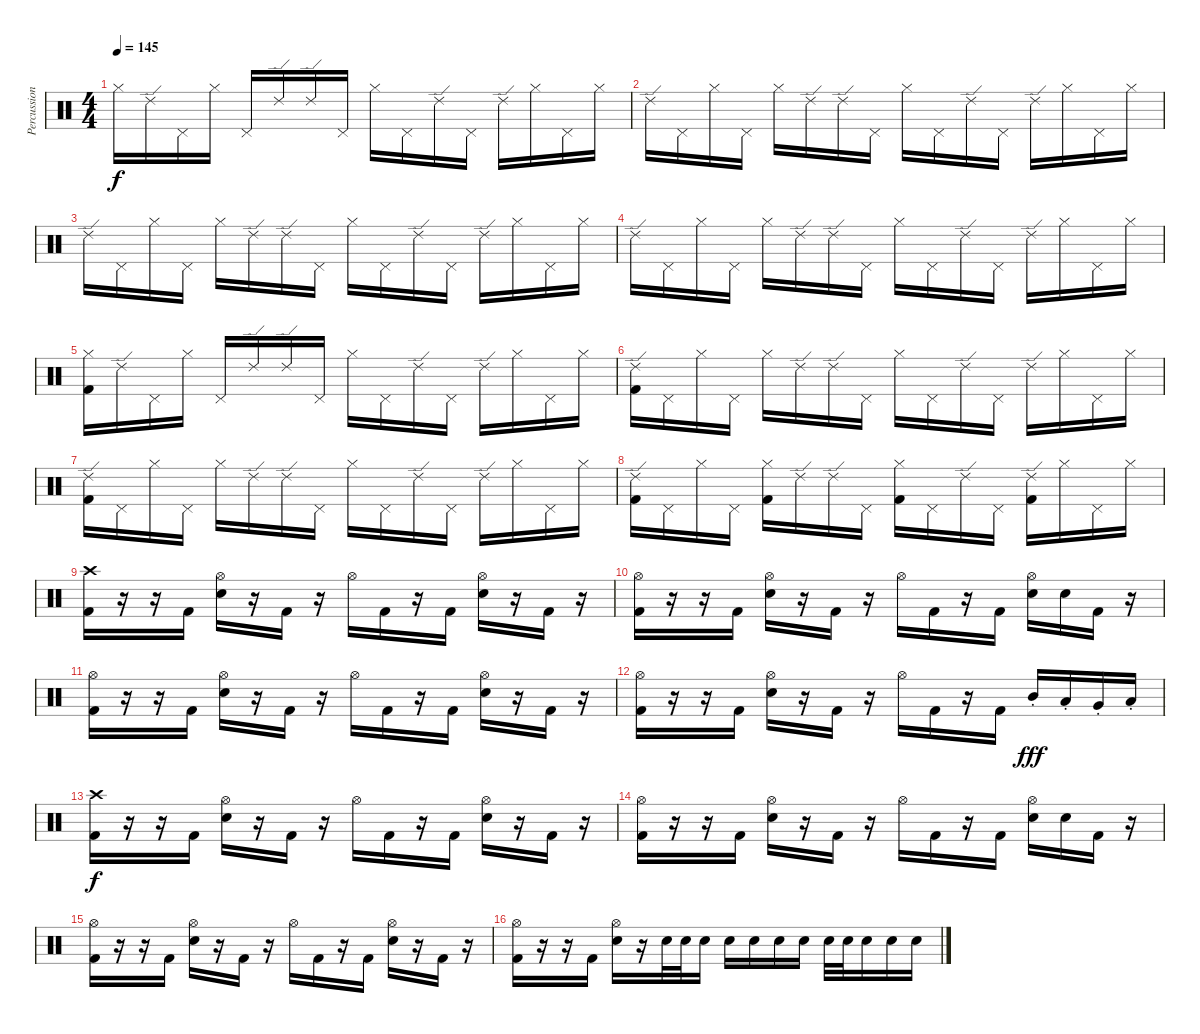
\track ("Percussion" "Percussion") {instrument percussion}
\staff {score}
\articulation defaults
\ts (4 4)
\tempo 145
\clef neutral
\ks c "Hi-Hat (closed)".16{dy f} "Ride (edge) 2".16 "Pedal Hi-Hat (hit)".16 "Hi-Hat (closed)".16 "Pedal Hi-Hat (hit)".16 "Ride (edge) 2".16 "Ride (edge) 2".16 "Pedal Hi-Hat (hit)".16 "Hi-Hat (closed)".16 "Pedal Hi-Hat (hit)".16 "Ride (edge) 2".16 "Pedal Hi-Hat (hit)".16 "Ride (edge) 2".16 "Hi-Hat (closed)".16 "Pedal Hi-Hat (hit)".16 "Hi-Hat (closed)".16
|
"Ride (edge) 2".16 "Pedal Hi-Hat (hit)".16 "Hi-Hat (closed)".16 "Pedal Hi-Hat (hit)".16 "Hi-Hat (closed)".16 "Ride (edge) 2".16 "Ride (edge) 2".16 "Pedal Hi-Hat (hit)".16 "Hi-Hat (closed)".16 "Pedal Hi-Hat (hit)".16 "Ride (edge) 2".16 "Pedal Hi-Hat (hit)".16 "Ride (edge) 2".16 "Hi-Hat (closed)".16 "Pedal Hi-Hat (hit)".16 "Hi-Hat (closed)".16 |
"Ride (edge) 2".16 "Pedal Hi-Hat (hit)".16 "Hi-Hat (closed)".16 "Pedal Hi-Hat (hit)".16 "Hi-Hat (closed)".16 "Ride (edge) 2".16 "Ride (edge) 2".16 "Pedal Hi-Hat (hit)".16 "Hi-Hat (closed)".16 "Pedal Hi-Hat (hit)".16 "Ride (edge) 2".16 "Pedal Hi-Hat (hit)".16 "Ride (edge) 2".16 "Hi-Hat (closed)".16 "Pedal Hi-Hat (hit)".16 "Hi-Hat (closed)".16 |
"Ride (edge) 2".16 "Pedal Hi-Hat (hit)".16 "Hi-Hat (closed)".16 "Pedal Hi-Hat (hit)".16 "Hi-Hat (closed)".16 "Ride (edge) 2".16 "Ride (edge) 2".16 "Pedal Hi-Hat (hit)".16 "Hi-Hat (closed)".16 "Pedal Hi-Hat (hit)".16 "Ride (edge) 2".16 "Pedal Hi-Hat (hit)".16 "Ride (edge) 2".16 "Hi-Hat (closed)".16 "Pedal Hi-Hat (hit)".16 "Hi-Hat (closed)".16 |
("Hi-Hat (closed)" "Kick (hit) 2").16 "Ride (edge) 2".16 "Pedal Hi-Hat (hit)".16 "Hi-Hat (closed)".16 "Pedal Hi-Hat (hit)".16 "Ride (edge) 2".16 "Ride (edge) 2".16 "Pedal Hi-Hat (hit)".16 "Hi-Hat (closed)".16 "Pedal Hi-Hat (hit)".16 "Ride (edge) 2".16 "Pedal Hi-Hat (hit)".16 "Ride (edge) 2".16 "Hi-Hat (closed)".16 "Pedal Hi-Hat (hit)".16 "Hi-Hat (closed)".16 |
("Ride (edge) 2" "Kick (hit) 2").16 "Pedal Hi-Hat (hit)".16 "Hi-Hat (closed)".16 "Pedal Hi-Hat (hit)".16 "Hi-Hat (closed)".16 "Ride (edge) 2".16 "Ride (edge) 2".16 "Pedal Hi-Hat (hit)".16 "Hi-Hat (closed)".16 "Pedal Hi-Hat (hit)".16 "Ride (edge) 2".16 "Pedal Hi-Hat (hit)".16 "Ride (edge) 2".16 "Hi-Hat (closed)".16 "Pedal Hi-Hat (hit)".16 "Hi-Hat (closed)".16 |
("Ride (edge) 2" "Kick (hit) 2").16 "Pedal Hi-Hat (hit)".16 "Hi-Hat (closed)".16 "Pedal Hi-Hat (hit)".16 "Hi-Hat (closed)".16 "Ride (edge) 2".16 "Ride (edge) 2".16 "Pedal Hi-Hat (hit)".16 "Hi-Hat (closed)".16 "Pedal Hi-Hat (hit)".16 "Ride (edge) 2".16 "Pedal Hi-Hat (hit)".16 "Ride (edge) 2".16 "Hi-Hat (closed)".16 "Pedal Hi-Hat (hit)".16 "Hi-Hat (closed)".16 |
("Ride (edge) 2" "Kick (hit) 2").16 "Pedal Hi-Hat (hit)".16 "Hi-Hat (closed)".16 "Pedal Hi-Hat (hit)".16 ("Hi-Hat (closed)" "Kick (hit) 2").16 "Ride (edge) 2".16 "Ride (edge) 2".16 "Pedal Hi-Hat (hit)".16 ("Hi-Hat (closed)" "Kick (hit) 2").16 "Pedal Hi-Hat (hit)".16 "Ride (edge) 2".16 "Pedal Hi-Hat (hit)".16 ("Ride (edge) 2" "Kick (hit) 2").16 "Hi-Hat (closed)".16 "Pedal Hi-Hat (hit)".16 "Hi-Hat (closed)".16 |
("Crash high (hit)" "Kick (hit) 2").16 r.16 r.16 "Kick (hit) 2".16 ("Hi-Hat (open)" "Snare (hit) 2").16 r.16 "Kick (hit) 2".16 r.16 "Hi-Hat (open)".16 "Kick (hit) 2".16 r.16 "Kick (hit) 2".16 ("Hi-Hat (open)" "Snare (hit) 2").16 r.16 "Kick (hit) 2".16 r.16 |
("Hi-Hat (open)" "Kick (hit) 2").16 r.16 r.16 "Kick (hit) 2".16 ("Hi-Hat (open)" "Snare (hit) 2").16 r.16 "Kick (hit) 2".16 r.16 "Hi-Hat (open)".16 "Kick (hit) 2".16 r.16 "Kick (hit) 2".16 ("Hi-Hat (open)" "Snare (hit) 2").16 "Snare (hit) 2".16 "Kick (hit) 2".16 r.16 |
("Hi-Hat (open)" "Kick (hit) 2").16 r.16 r.16 "Kick (hit) 2".16 ("Hi-Hat (open)" "Snare (hit) 2").16 r.16 "Kick (hit) 2".16 r.16 "Hi-Hat (open)".16 "Kick (hit) 2".16 r.16 "Kick (hit) 2".16 ("Hi-Hat (open)" "Snare (hit) 2").16 r.16 "Kick (hit) 2".16 r.16 |
("Hi-Hat (open)" "Kick (hit) 2").16 r.16 r.16 "Kick (hit) 2".16 ("Hi-Hat (open)" "Snare (hit) 2").16 r.16 "Kick (hit) 2".16 r.16 "Hi-Hat (open)".16 "Kick (hit) 2".16 r.16 "Kick (hit) 2".16 "Mid Tom (hit)"{st}.16{dy fff} "Low Tom (hit)"{st}.16 "Very Low Tom (hit)"{st}.16 "Low Floor Tom (hit)"{st}.16 |
("Crash high (hit)" "Kick (hit) 2").16{dy f} r.16 r.16 "Kick (hit) 2".16 ("Hi-Hat (open)" "Snare (hit) 2").16 r.16 "Kick (hit) 2".16 r.16 "Hi-Hat (open)".16 "Kick (hit) 2".16 r.16 "Kick (hit) 2".16 ("Hi-Hat (open)" "Snare (hit) 2").16 r.16 "Kick (hit) 2".16 r.16 |
("Hi-Hat (open)" "Kick (hit) 2").16 r.16 r.16 "Kick (hit) 2".16 ("Hi-Hat (open)" "Snare (hit) 2").16 r.16 "Kick (hit) 2".16 r.16 "Hi-Hat (open)".16 "Kick (hit) 2".16 r.16 "Kick (hit) 2".16 ("Hi-Hat (open)" "Snare (hit) 2").16 "Snare (hit) 2".16 "Kick (hit) 2".16 r.16 |
("Hi-Hat (open)" "Kick (hit) 2").16 r.16 r.16 "Kick (hit) 2".16 ("Hi-Hat (open)" "Snare (hit) 2").16 r.16 "Kick (hit) 2".16 r.16 "Hi-Hat (open)".16 "Kick (hit) 2".16 r.16 "Kick (hit) 2".16 ("Hi-Hat (open)" "Snare (hit) 2").16 r.16 "Kick (hit) 2".16 r.16 |
("Hi-Hat (open)" "Kick (hit) 2").16 r.16 r.16 "Kick (hit) 2".16 ("Hi-Hat (open)" "Snare (hit) 2").16 r.16 "Snare (hit) 2".32 "Snare (hit) 2".32 "Snare (hit) 2".16 "Snare (hit) 2".16 "Snare (hit) 2".16 "Snare (hit) 2".16 "Snare (hit) 2".16 "Snare (hit) 2".32 "Snare (hit) 2".32 "Snare (hit) 2".16 "Snare (hit) 2".16 "Snare (hit) 2".16
